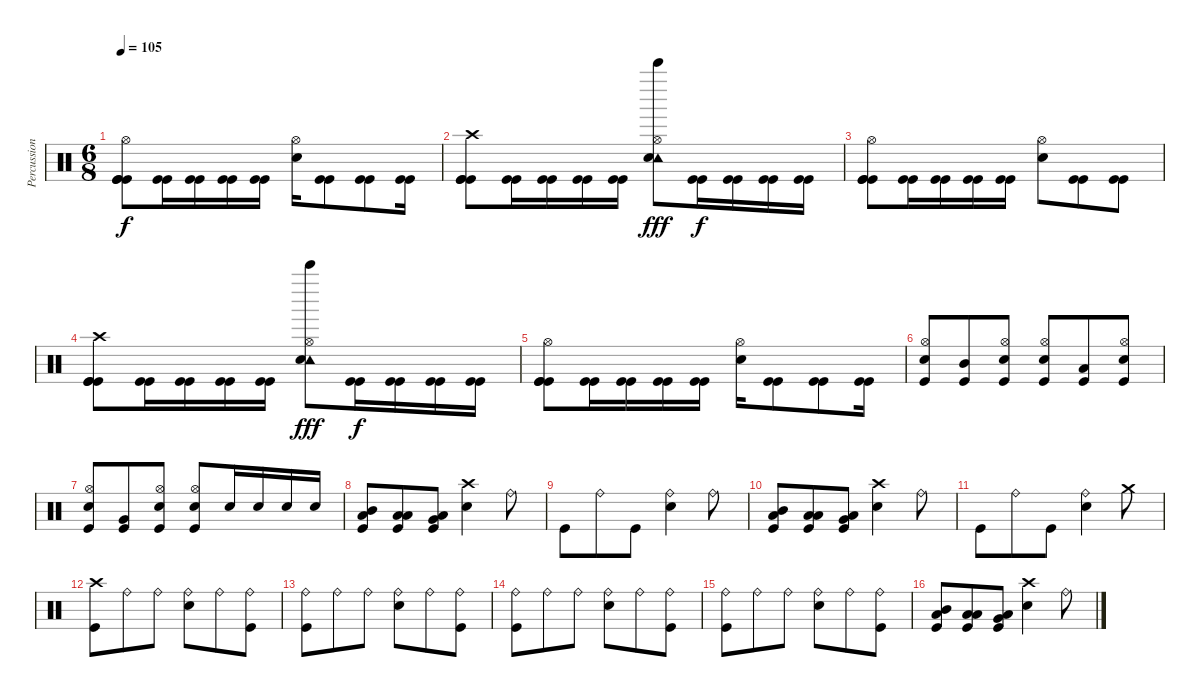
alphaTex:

\track ("Percussions" "Percussion") {instrument percussion}
\staff {score}
\articulation defaults
\ts (6 8)
\tempo 105
\clef neutral
\ks c
("Kick (hit)" "Kick (hit)" "Kick (hit)" "Hi-Hat (open)").8{dy f} ("Kick (hit)" "Kick (hit)").16 ("Kick (hit)" "Kick (hit)").16 ("Kick (hit)" "Kick (hit)").16 ("Kick (hit)" "Kick (hit)").16 ("Snare (hit) 2" "Hi-Hat (open)").16 ("Kick (hit)" "Kick (hit)").8 ("Kick (hit)" "Kick (hit)").8 ("Kick (hit)" "Kick (hit)").16 |
("Kick (hit)" "Kick (hit)" "Kick (hit)" "Crash high (hit)").8 ("Kick (hit)" "Kick (hit)").16 ("Kick (hit)" "Kick (hit)").16 ("Kick (hit)" "Kick (hit)").16 ("Kick (hit)" "Kick (hit)").16 ("Bell Tree (hit)" "Tambourine (hit)" "Snare (hit) 2" "Hi-Hat (open)").8{dy fff} ("Kick (hit)" "Kick (hit)").16{dy f} ("Kick (hit)" "Kick (hit)").16 ("Kick (hit)" "Kick (hit)").16 ("Kick (hit)" "Kick (hit)").16 |
("Kick (hit)" "Kick (hit)" "Kick (hit)" "Hi-Hat (open)").8 ("Kick (hit)" "Kick (hit)").16 ("Kick (hit)" "Kick (hit)").16 ("Kick (hit)" "Kick (hit)").16 ("Kick (hit)" "Kick (hit)").16 ("Snare (hit) 2" "Hi-Hat (open)").8 ("Kick (hit)" "Kick (hit)").8 ("Kick (hit)" "Kick (hit)").8 |
("Kick (hit)" "Kick (hit)" "Kick (hit)" "Crash high (hit)").8 ("Kick (hit)" "Kick (hit)").16 ("Kick (hit)" "Kick (hit)").16 ("Kick (hit)" "Kick (hit)").16 ("Kick (hit)" "Kick (hit)").16 ("Bell Tree (hit)" "Tambourine (hit)" "Snare (hit) 2" "Hi-Hat (open)").8{dy fff} ("Kick (hit)" "Kick (hit)").16{dy f} ("Kick (hit)" "Kick (hit)").16 ("Kick (hit)" "Kick (hit)").16 ("Kick (hit)" "Kick (hit)").16 |
("Kick (hit)" "Kick (hit)" "Kick (hit)" "Hi-Hat (open)").8 ("Kick (hit)" "Kick (hit)").16 ("Kick (hit)" "Kick (hit)").16 ("Kick (hit)" "Kick (hit)").16 ("Kick (hit)" "Kick (hit)").16 ("Snare (hit) 2" "Hi-Hat (open)").16 ("Kick (hit)" "Kick (hit)").8 ("Kick (hit)" "Kick (hit)").8 ("Kick (hit)" "Kick (hit)").16 |
("Kick (hit)" "Snare (hit) 2" "Hi-Hat (open)").8 ("Kick (hit)" "Mid Tom (hit)").8 ("Kick (hit)" "Snare (hit) 2" "Hi-Hat (open)").8 ("Kick (hit)" "Snare (hit) 2" "Hi-Hat (open)").8 ("Kick (hit)" "Low Tom (hit)").8 ("Kick (hit)" "Snare (hit) 2" "Hi-Hat (open)").8 |
("Kick (hit)" "Snare (hit) 2" "Hi-Hat (open)").8 ("Kick (hit)" "Very Low Tom (hit)").8 ("Kick (hit)" "Snare (hit) 2" "Hi-Hat (open)").8 ("Kick (hit)" "Snare (hit) 2" "Hi-Hat (open)").8 "Snare (hit) 2".16 "Snare (hit) 2".16 "Snare (hit) 2".16 "Snare (hit) 2".16 |
("Low Floor Tom (hit)" "Kick (hit)" "Mid Tom (hit)").8 ("Low Floor Tom (hit)" "Kick (hit)" "Low Tom (hit)").8 ("Low Floor Tom (hit)" "Kick (hit)" "Very Low Tom (hit)").8 ("Crash high (hit)" "Snare (hit) 2").4 "Ride (bell)".8 |
"Kick (hit)".8 "Ride (bell)".8 "Kick (hit)".8 ("Snare (hit) 2" "Ride (bell)").4 "Ride (bell)".8 |
("Low Floor Tom (hit)" "Kick (hit)" "Mid Tom (hit)").8 ("Low Floor Tom (hit)" "Kick (hit)" "Low Tom (hit)").8 ("Low Floor Tom (hit)" "Kick (hit)" "Very Low Tom (hit)").8 ("Crash high (hit)" "Snare (hit) 2").4 "Ride (bell)".8 |
"Kick (hit)".8 "Ride (bell)".8 "Kick (hit)".8 ("Snare (hit) 2" "Ride (bell)").4 "Crash medium (hit)".8 |
("Kick (hit)" "Crash high (hit)").8 "Ride (bell)".8 "Ride (bell)".8 ("Snare (hit) 2" "Ride (bell)").8 "Ride (bell)".8 ("Kick (hit)" "Ride (bell)").8 |
("Kick (hit)" "Ride (bell)").8 "Ride (bell)".8 "Ride (bell)".8 ("Snare (hit) 2" "Ride (bell)").8 "Ride (bell)".8 ("Kick (hit)" "Ride (bell)").8 |
("Kick (hit)" "Ride (bell)").8 "Ride (bell)".8 "Ride (bell)".8 ("Snare (hit) 2" "Ride (bell)").8 "Ride (bell)".8 ("Kick (hit)" "Ride (bell)").8 |
("Kick (hit)" "Ride (bell)").8 "Ride (bell)".8 "Ride (bell)".8 ("Snare (hit) 2" "Ride (bell)").8 "Ride (bell)".8 ("Kick (hit)" "Ride (bell)").8 |
("Low Floor Tom (hit)" "Kick (hit)" "Mid Tom (hit)").8 ("Low Floor Tom (hit)" "Kick (hit)" "Low Tom (hit)").8 ("Low Floor Tom (hit)" "Kick (hit)" "Very Low Tom (hit)").8 ("Crash high (hit)" "Snare (hit) 2").4 "Ride (bell)".8
